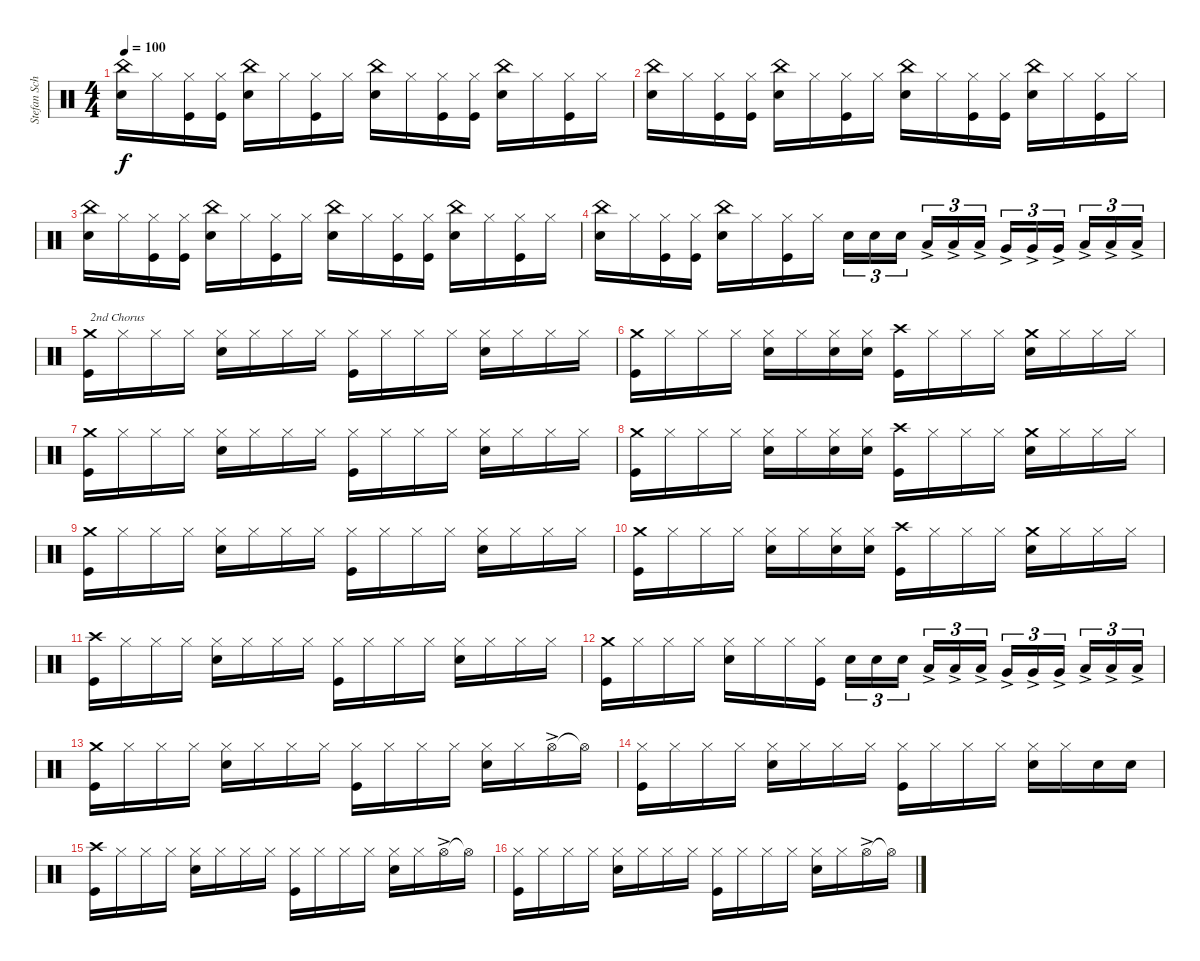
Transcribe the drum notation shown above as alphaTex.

\track ("Stefan Schwarzmann" "Stefan Sch") {instrument percussion}
\staff {score}
\articulation defaults
\ts (4 4)
\tempo 100
\clef neutral
\ks c
("Snare (hit) 2" "China (hit)").16{dy f} "Hi-Hat (closed)".16 ("Hi-Hat (closed)" "Kick (hit)").16 ("Hi-Hat (closed)" "Kick (hit)").16 ("Snare (hit) 2" "China (hit)").16 "Hi-Hat (closed)".16 ("Hi-Hat (closed)" "Kick (hit)").16 "Hi-Hat (closed)".16 ("Snare (hit) 2" "China (hit)").16 "Hi-Hat (closed)".16 ("Hi-Hat (closed)" "Kick (hit)").16 ("Hi-Hat (closed)" "Kick (hit)").16 ("Snare (hit) 2" "China (hit)").16 "Hi-Hat (closed)".16 ("Hi-Hat (closed)" "Kick (hit)").16 "Hi-Hat (closed)".16 |
("Snare (hit) 2" "China (hit)").16 "Hi-Hat (closed)".16 ("Hi-Hat (closed)" "Kick (hit)").16 ("Hi-Hat (closed)" "Kick (hit)").16 ("Snare (hit) 2" "China (hit)").16 "Hi-Hat (closed)".16 ("Hi-Hat (closed)" "Kick (hit)").16 "Hi-Hat (closed)".16 ("Snare (hit) 2" "China (hit)").16 "Hi-Hat (closed)".16 ("Hi-Hat (closed)" "Kick (hit)").16 ("Hi-Hat (closed)" "Kick (hit)").16 ("Snare (hit) 2" "China (hit)").16 "Hi-Hat (closed)".16 ("Hi-Hat (closed)" "Kick (hit)").16 "Hi-Hat (closed)".16 |
("Snare (hit) 2" "China (hit)").16 "Hi-Hat (closed)".16 ("Hi-Hat (closed)" "Kick (hit)").16 ("Hi-Hat (closed)" "Kick (hit)").16 ("Snare (hit) 2" "China (hit)").16 "Hi-Hat (closed)".16 ("Hi-Hat (closed)" "Kick (hit)").16 "Hi-Hat (closed)".16 ("Snare (hit) 2" "China (hit)").16 "Hi-Hat (closed)".16 ("Hi-Hat (closed)" "Kick (hit)").16 ("Hi-Hat (closed)" "Kick (hit)").16 ("Snare (hit) 2" "China (hit)").16 "Hi-Hat (closed)".16 ("Hi-Hat (closed)" "Kick (hit)").16 "Hi-Hat (closed)".16 |
("Snare (hit) 2" "China (hit)").16 "Hi-Hat (closed)".16 ("Hi-Hat (closed)" "Kick (hit)").16 ("Hi-Hat (closed)" "Kick (hit)").16 ("Snare (hit) 2" "China (hit)").16 "Hi-Hat (closed)".16 ("Hi-Hat (closed)" "Kick (hit)").16 "Hi-Hat (closed)".16 "Snare (hit) 2".16{tu (3 2)} "Snare (hit) 2".16{tu (3 2)} "Snare (hit) 2".16{tu (3 2)} "Low Tom (hit)"{ac}.16{tu (3 2)} "Low Tom (hit)"{ac}.16{tu (3 2)} "Low Tom (hit)"{ac}.16{tu (3 2)} "Very Low Tom (hit)"{ac}.16{tu (3 2)} "Very Low Tom (hit)"{ac}.16{tu (3 2)} "Very Low Tom (hit)"{ac}.16{tu (3 2)} "Low Floor Tom (hit)"{ac}.16{tu (3 2)} "Low Floor Tom (hit)"{ac}.16{tu (3 2)} "Low Floor Tom (hit)"{ac}.16{tu (3 2)} |
("Kick (hit)" "Crash medium (hit)").16{txt "2nd Chorus"} "Hi-Hat (closed)".16 "Hi-Hat (closed)".16 "Hi-Hat (closed)".16 ("Snare (hit) 2" "Hi-Hat (closed)").16 "Hi-Hat (closed)".16 "Hi-Hat (closed)".16 "Hi-Hat (closed)".16 ("Kick (hit)" "Hi-Hat (closed)").16 "Hi-Hat (closed)".16 "Hi-Hat (closed)".16 "Hi-Hat (closed)".16 ("Snare (hit) 2" "Hi-Hat (closed)").16 "Hi-Hat (closed)".16 "Hi-Hat (closed)".16 "Hi-Hat (closed)".16 |
("Kick (hit)" "Crash medium (hit)").16 "Hi-Hat (closed)".16 "Hi-Hat (closed)".16 "Hi-Hat (closed)".16 ("Snare (hit) 2" "Hi-Hat (closed)").16 "Hi-Hat (closed)".16 ("Hi-Hat (closed)" "Snare (hit) 2").16 ("Hi-Hat (closed)" "Snare (hit) 2").16 ("Kick (hit)" "Crash high (hit)").16 "Hi-Hat (closed)".16 "Hi-Hat (closed)".16 "Hi-Hat (closed)".16 ("Snare (hit) 2" "Crash medium (hit)").16 "Hi-Hat (closed)".16 "Hi-Hat (closed)".16 "Hi-Hat (closed)".16 |
("Kick (hit)" "Crash medium (hit)").16 "Hi-Hat (closed)".16 "Hi-Hat (closed)".16 "Hi-Hat (closed)".16 ("Snare (hit) 2" "Hi-Hat (closed)").16 "Hi-Hat (closed)".16 "Hi-Hat (closed)".16 "Hi-Hat (closed)".16 ("Kick (hit)" "Hi-Hat (closed)").16 "Hi-Hat (closed)".16 "Hi-Hat (closed)".16 "Hi-Hat (closed)".16 ("Snare (hit) 2" "Hi-Hat (closed)").16 "Hi-Hat (closed)".16 "Hi-Hat (closed)".16 "Hi-Hat (closed)".16 |
("Kick (hit)" "Crash medium (hit)").16 "Hi-Hat (closed)".16 "Hi-Hat (closed)".16 "Hi-Hat (closed)".16 ("Snare (hit) 2" "Hi-Hat (closed)").16 "Hi-Hat (closed)".16 ("Hi-Hat (closed)" "Snare (hit) 2").16 ("Hi-Hat (closed)" "Snare (hit) 2").16 ("Kick (hit)" "Crash high (hit)").16 "Hi-Hat (closed)".16 "Hi-Hat (closed)".16 "Hi-Hat (closed)".16 ("Snare (hit) 2" "Crash medium (hit)").16 "Hi-Hat (closed)".16 "Hi-Hat (closed)".16 "Hi-Hat (closed)".16 |
("Kick (hit)" "Crash medium (hit)").16 "Hi-Hat (closed)".16 "Hi-Hat (closed)".16 "Hi-Hat (closed)".16 ("Snare (hit) 2" "Hi-Hat (closed)").16 "Hi-Hat (closed)".16 "Hi-Hat (closed)".16 "Hi-Hat (closed)".16 ("Kick (hit)" "Hi-Hat (closed)").16 "Hi-Hat (closed)".16 "Hi-Hat (closed)".16 "Hi-Hat (closed)".16 ("Snare (hit) 2" "Hi-Hat (closed)").16 "Hi-Hat (closed)".16 "Hi-Hat (closed)".16 "Hi-Hat (closed)".16 |
("Kick (hit)" "Crash medium (hit)").16 "Hi-Hat (closed)".16 "Hi-Hat (closed)".16 "Hi-Hat (closed)".16 ("Snare (hit) 2" "Hi-Hat (closed)").16 "Hi-Hat (closed)".16 ("Hi-Hat (closed)" "Snare (hit) 2").16 ("Hi-Hat (closed)" "Snare (hit) 2").16 ("Kick (hit)" "Crash high (hit)").16 "Hi-Hat (closed)".16 "Hi-Hat (closed)".16 "Hi-Hat (closed)".16 ("Snare (hit) 2" "Crash medium (hit)").16 "Hi-Hat (closed)".16 "Hi-Hat (closed)".16 "Hi-Hat (closed)".16 |
("Kick (hit)" "Crash high (hit)").16 "Hi-Hat (closed)".16 "Hi-Hat (closed)".16 "Hi-Hat (closed)".16 ("Snare (hit) 2" "Hi-Hat (closed)").16 "Hi-Hat (closed)".16 "Hi-Hat (closed)".16 "Hi-Hat (closed)".16 ("Kick (hit)" "Hi-Hat (closed)").16 "Hi-Hat (closed)".16 "Hi-Hat (closed)".16 "Hi-Hat (closed)".16 ("Snare (hit) 2" "Hi-Hat (closed)").16 "Hi-Hat (closed)".16 "Hi-Hat (closed)".16 "Hi-Hat (closed)".16 |
("Kick (hit)" "Crash medium (hit)").16 "Hi-Hat (closed)".16 "Hi-Hat (closed)".16 "Hi-Hat (closed)".16 ("Snare (hit) 2" "Hi-Hat (closed)").16 "Hi-Hat (closed)".16 "Hi-Hat (closed)".16 ("Hi-Hat (closed)" "Kick (hit)").16 "Snare (hit) 2".16{tu (3 2)} "Snare (hit) 2".16{tu (3 2)} "Snare (hit) 2".16{tu (3 2)} "Low Tom (hit)"{ac}.16{tu (3 2)} "Low Tom (hit)"{ac}.16{tu (3 2)} "Low Tom (hit)"{ac}.16{tu (3 2)} "Very Low Tom (hit)"{ac}.16{tu (3 2)} "Very Low Tom (hit)"{ac}.16{tu (3 2)} "Very Low Tom (hit)"{ac}.16{tu (3 2)} "Low Floor Tom (hit)"{ac}.16{tu (3 2)} "Low Floor Tom (hit)"{ac}.16{tu (3 2)} "Low Floor Tom (hit)"{ac}.16{tu (3 2)} |
("Kick (hit)" "Crash medium (hit)").16 "Hi-Hat (closed)".16 "Hi-Hat (closed)".16 "Hi-Hat (closed)".16 ("Snare (hit) 2" "Hi-Hat (closed)").16 "Hi-Hat (closed)".16 "Hi-Hat (closed)".16 "Hi-Hat (closed)".16 ("Kick (hit)" "Hi-Hat (closed)").16 "Hi-Hat (closed)".16 "Hi-Hat (closed)".16 "Hi-Hat (closed)".16 ("Snare (hit) 2" "Hi-Hat (closed)").16 "Hi-Hat (closed)".16 "Hi-Hat (open)"{ac}.16 "Hi-Hat (open)"{t}.16 |
("Kick (hit)" "Hi-Hat (closed)").16 "Hi-Hat (closed)".16 "Hi-Hat (closed)".16 "Hi-Hat (closed)".16 ("Snare (hit) 2" "Hi-Hat (closed)").16 "Hi-Hat (closed)".16 "Hi-Hat (closed)".16 "Hi-Hat (closed)".16 ("Kick (hit)" "Hi-Hat (closed)").16 "Hi-Hat (closed)".16 "Hi-Hat (closed)".16 "Hi-Hat (closed)".16 ("Snare (hit) 2" "Hi-Hat (closed)").16 "Hi-Hat (closed)".16 "Snare (hit) 2".16 "Snare (hit) 2".16 |
("Kick (hit)" "Crash high (hit)").16 "Hi-Hat (closed)".16 "Hi-Hat (closed)".16 "Hi-Hat (closed)".16 ("Snare (hit) 2" "Hi-Hat (closed)").16 "Hi-Hat (closed)".16 "Hi-Hat (closed)".16 "Hi-Hat (closed)".16 ("Kick (hit)" "Hi-Hat (closed)").16 "Hi-Hat (closed)".16 "Hi-Hat (closed)".16 "Hi-Hat (closed)".16 ("Snare (hit) 2" "Hi-Hat (closed)").16 "Hi-Hat (closed)".16 "Hi-Hat (open)"{ac}.16 "Hi-Hat (open)"{t}.16 |
("Kick (hit)" "Hi-Hat (closed)").16 "Hi-Hat (closed)".16 "Hi-Hat (closed)".16 "Hi-Hat (closed)".16 ("Snare (hit) 2" "Hi-Hat (closed)").16 "Hi-Hat (closed)".16 "Hi-Hat (closed)".16 "Hi-Hat (closed)".16 ("Kick (hit)" "Hi-Hat (closed)").16 "Hi-Hat (closed)".16 "Hi-Hat (closed)".16 "Hi-Hat (closed)".16 ("Snare (hit) 2" "Hi-Hat (closed)").16 "Hi-Hat (closed)".16 "Hi-Hat (open)"{ac}.16 "Hi-Hat (open)"{t}.16
